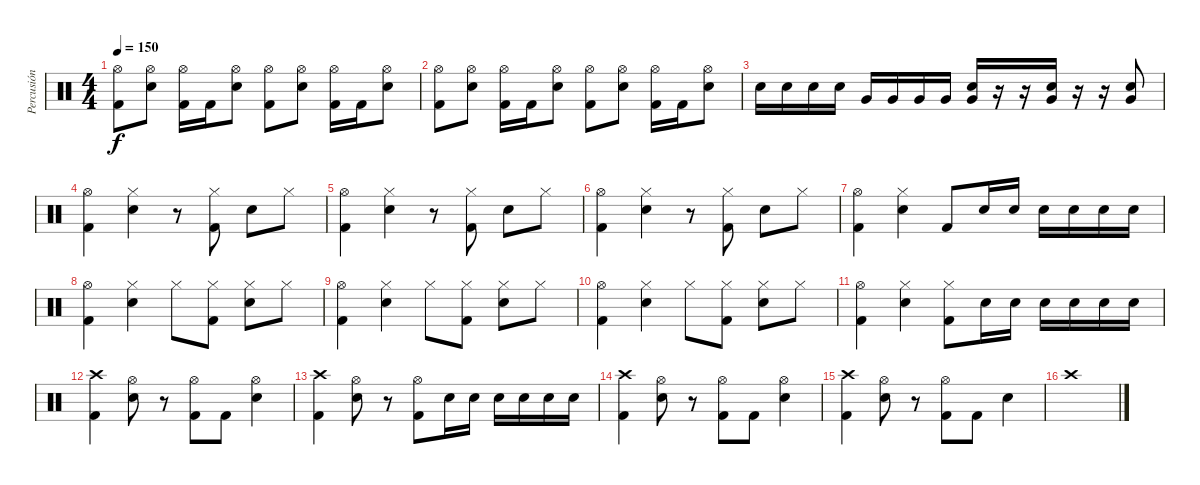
\track ("Percusión" "Percusión") {instrument percussion}
\staff {score}
\articulation defaults
\ts (4 4)
\tempo 150
\clef neutral
\ks c
("Hi-Hat (open)" "Kick (hit) 2").8{dy f} ("Hi-Hat (open)" "Electric Snare (hit)").8 ("Hi-Hat (open)" "Kick (hit) 2").16 "Kick (hit) 2".16 ("Hi-Hat (open)" "Electric Snare (hit)").8 ("Hi-Hat (open)" "Kick (hit) 2").8 ("Hi-Hat (open)" "Electric Snare (hit)").8 ("Hi-Hat (open)" "Kick (hit) 2").16 "Kick (hit) 2".16 ("Hi-Hat (open)" "Electric Snare (hit)").8 |
("Hi-Hat (open)" "Kick (hit) 2").8 ("Hi-Hat (open)" "Electric Snare (hit)").8 ("Hi-Hat (open)" "Kick (hit) 2").16 "Kick (hit) 2".16 ("Hi-Hat (open)" "Electric Snare (hit)").8 ("Hi-Hat (open)" "Kick (hit) 2").8 ("Hi-Hat (open)" "Electric Snare (hit)").8 ("Hi-Hat (open)" "Kick (hit) 2").16 "Kick (hit) 2".16 ("Hi-Hat (open)" "Electric Snare (hit)").8 |
"Electric Snare (hit)".16 "Electric Snare (hit)".16 "Electric Snare (hit)".16 "Electric Snare (hit)".16 "Very Low Tom (hit)".16 "Very Low Tom (hit)".16 "Very Low Tom (hit)".16 "Very Low Tom (hit)".16 ("Very Low Tom (hit)" "Electric Snare (hit)").16 r.16 r.16 ("Very Low Tom (hit)" "Electric Snare (hit)").16 r.16 r.16 ("Very Low Tom (hit)" "Electric Snare (hit)").8 |
("Hi-Hat (open)" "Kick (hit) 2").4 ("Hi-Hat (closed)" "Electric Snare (hit)").4 r.8 ("Hi-Hat (closed)" "Kick (hit) 2").8 "Electric Snare (hit)".8 "Hi-Hat (closed)".8 |
("Hi-Hat (open)" "Kick (hit) 2").4 ("Hi-Hat (closed)" "Electric Snare (hit)").4 r.8 ("Hi-Hat (closed)" "Kick (hit) 2").8 "Electric Snare (hit)".8 "Hi-Hat (closed)".8 |
("Hi-Hat (open)" "Kick (hit) 2").4 ("Hi-Hat (closed)" "Electric Snare (hit)").4 r.8 ("Hi-Hat (closed)" "Kick (hit) 2").8 "Electric Snare (hit)".8 "Hi-Hat (closed)".8 |
("Hi-Hat (open)" "Kick (hit) 2").4 ("Hi-Hat (closed)" "Electric Snare (hit)").4 "Kick (hit) 2".8 "Electric Snare (hit)".16 "Electric Snare (hit)".16 "Electric Snare (hit)".16 "Electric Snare (hit)".16 "Electric Snare (hit)".16 "Electric Snare (hit)".16 |
("Hi-Hat (open)" "Kick (hit) 2").4 ("Hi-Hat (closed)" "Electric Snare (hit)").4 "Hi-Hat (closed)".8 ("Hi-Hat (closed)" "Kick (hit) 2").8 ("Hi-Hat (closed)" "Electric Snare (hit)").8 "Hi-Hat (closed)".8 |
("Hi-Hat (open)" "Kick (hit) 2").4 ("Hi-Hat (closed)" "Electric Snare (hit)").4 "Hi-Hat (closed)".8 ("Hi-Hat (closed)" "Kick (hit) 2").8 ("Hi-Hat (closed)" "Electric Snare (hit)").8 "Hi-Hat (closed)".8 |
("Hi-Hat (open)" "Kick (hit) 2").4 ("Hi-Hat (closed)" "Electric Snare (hit)").4 "Hi-Hat (closed)".8 ("Hi-Hat (closed)" "Kick (hit) 2").8 ("Hi-Hat (closed)" "Electric Snare (hit)").8 "Hi-Hat (closed)".8 |
("Hi-Hat (open)" "Kick (hit) 2").4 ("Hi-Hat (closed)" "Electric Snare (hit)").4 ("Hi-Hat (closed)" "Kick (hit) 2").8 "Electric Snare (hit)".16 "Electric Snare (hit)".16 "Electric Snare (hit)".16 "Electric Snare (hit)".16 "Electric Snare (hit)".16 "Electric Snare (hit)".16 |
("Crash high (hit)" "Kick (hit) 2").4 ("Hi-Hat (open)" "Electric Snare (hit)").8 r.8 ("Hi-Hat (open)" "Kick (hit) 2").8 "Kick (hit) 2".8 ("Hi-Hat (open)" "Electric Snare (hit)").4 |
("Crash high (hit)" "Kick (hit) 2").4 ("Hi-Hat (open)" "Electric Snare (hit)").8 r.8 ("Hi-Hat (open)" "Kick (hit) 2").8 "Electric Snare (hit)".16 "Electric Snare (hit)".16 "Electric Snare (hit)".16 "Electric Snare (hit)".16 "Electric Snare (hit)".16 "Electric Snare (hit)".16 |
("Crash high (hit)" "Kick (hit) 2").4 ("Hi-Hat (open)" "Electric Snare (hit)").8 r.8 ("Hi-Hat (open)" "Kick (hit) 2").8 "Kick (hit) 2".8 ("Hi-Hat (open)" "Electric Snare (hit)").4 |
("Crash high (hit)" "Kick (hit) 2").4 ("Hi-Hat (open)" "Electric Snare (hit)").8 r.8 ("Hi-Hat (open)" "Kick (hit) 2").8 "Kick (hit) 2".8 "Electric Snare (hit)".4 |
"Crash high (hit)".1
